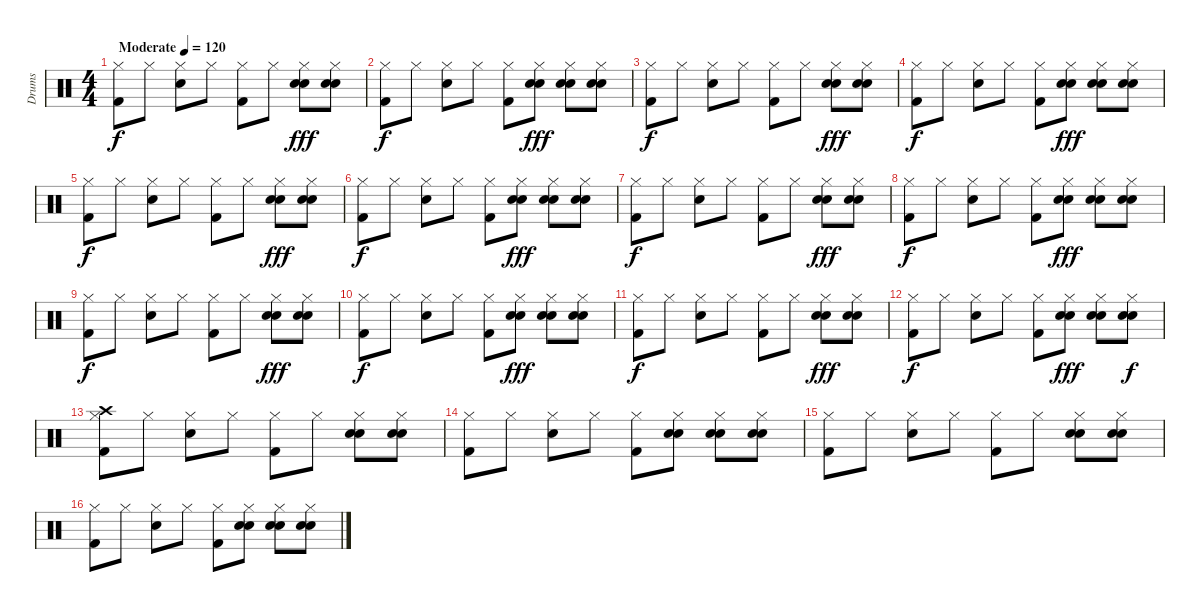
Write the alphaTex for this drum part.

\track ("Drums" "Drums") {instrument percussion}
\staff {score}
\articulation defaults
\ts (4 4)
\tempo (120 "Moderate")
\clef neutral
\ks c
("Hi-Hat (closed)" "Kick (hit) 2").8{dy f} "Hi-Hat (closed)".8 ("Hi-Hat (closed)" "Electric Snare (hit)").8 "Hi-Hat (closed)".8 ("Hi-Hat (closed)" "Kick (hit) 2").8 "Hi-Hat (closed)".8 ("Hi-Hat (closed)" "Hand Clap (hit)" "Electric Snare (hit)").8{dy fff} ("Hi-Hat (closed)" "Hand Clap (hit)" "Electric Snare (hit)").8 |
("Hi-Hat (closed)" "Kick (hit) 2").8{dy f} "Hi-Hat (closed)".8 ("Hi-Hat (closed)" "Electric Snare (hit)").8 "Hi-Hat (closed)".8 ("Hi-Hat (closed)" "Kick (hit) 2").8 ("Hi-Hat (closed)" "Hand Clap (hit)" "Electric Snare (hit)").8{dy fff} ("Hi-Hat (closed)" "Hand Clap (hit)" "Electric Snare (hit)").8 ("Hi-Hat (closed)" "Hand Clap (hit)" "Electric Snare (hit)").8 |
("Hi-Hat (closed)" "Kick (hit) 2").8{dy f} "Hi-Hat (closed)".8 ("Hi-Hat (closed)" "Electric Snare (hit)").8 "Hi-Hat (closed)".8 ("Hi-Hat (closed)" "Kick (hit) 2").8 "Hi-Hat (closed)".8 ("Hi-Hat (closed)" "Hand Clap (hit)" "Electric Snare (hit)").8{dy fff} ("Hi-Hat (closed)" "Hand Clap (hit)" "Electric Snare (hit)").8 |
("Hi-Hat (closed)" "Kick (hit) 2").8{dy f} "Hi-Hat (closed)".8 ("Hi-Hat (closed)" "Electric Snare (hit)").8 "Hi-Hat (closed)".8 ("Hi-Hat (closed)" "Kick (hit) 2").8 ("Hi-Hat (closed)" "Hand Clap (hit)" "Electric Snare (hit)").8{dy fff} ("Hi-Hat (closed)" "Hand Clap (hit)" "Electric Snare (hit)").8 ("Hi-Hat (closed)" "Hand Clap (hit)" "Electric Snare (hit)").8 |
("Hi-Hat (closed)" "Kick (hit) 2").8{dy f} "Hi-Hat (closed)".8 ("Hi-Hat (closed)" "Electric Snare (hit)").8 "Hi-Hat (closed)".8 ("Hi-Hat (closed)" "Kick (hit) 2").8 "Hi-Hat (closed)".8 ("Hi-Hat (closed)" "Hand Clap (hit)" "Electric Snare (hit)").8{dy fff} ("Hi-Hat (closed)" "Hand Clap (hit)" "Electric Snare (hit)").8 |
("Hi-Hat (closed)" "Kick (hit) 2").8{dy f} "Hi-Hat (closed)".8 ("Hi-Hat (closed)" "Electric Snare (hit)").8 "Hi-Hat (closed)".8 ("Hi-Hat (closed)" "Kick (hit) 2").8 ("Hi-Hat (closed)" "Hand Clap (hit)" "Electric Snare (hit)").8{dy fff} ("Hi-Hat (closed)" "Hand Clap (hit)" "Electric Snare (hit)").8 ("Hi-Hat (closed)" "Hand Clap (hit)" "Electric Snare (hit)").8 |
("Hi-Hat (closed)" "Kick (hit) 2").8{dy f} "Hi-Hat (closed)".8 ("Hi-Hat (closed)" "Electric Snare (hit)").8 "Hi-Hat (closed)".8 ("Hi-Hat (closed)" "Kick (hit) 2").8 "Hi-Hat (closed)".8 ("Hi-Hat (closed)" "Hand Clap (hit)" "Electric Snare (hit)").8{dy fff} ("Hi-Hat (closed)" "Hand Clap (hit)" "Electric Snare (hit)").8 |
("Hi-Hat (closed)" "Kick (hit) 2").8{dy f} "Hi-Hat (closed)".8 ("Hi-Hat (closed)" "Electric Snare (hit)").8 "Hi-Hat (closed)".8 ("Hi-Hat (closed)" "Kick (hit) 2").8 ("Hi-Hat (closed)" "Hand Clap (hit)" "Electric Snare (hit)").8{dy fff} ("Hi-Hat (closed)" "Hand Clap (hit)" "Electric Snare (hit)").8 ("Hi-Hat (closed)" "Hand Clap (hit)" "Electric Snare (hit)").8 |
("Hi-Hat (closed)" "Kick (hit) 2").8{dy f} "Hi-Hat (closed)".8 ("Hi-Hat (closed)" "Electric Snare (hit)").8 "Hi-Hat (closed)".8 ("Hi-Hat (closed)" "Kick (hit) 2").8 "Hi-Hat (closed)".8 ("Hi-Hat (closed)" "Hand Clap (hit)" "Electric Snare (hit)").8{dy fff} ("Hi-Hat (closed)" "Hand Clap (hit)" "Electric Snare (hit)").8 |
("Hi-Hat (closed)" "Kick (hit) 2").8{dy f} "Hi-Hat (closed)".8 ("Hi-Hat (closed)" "Electric Snare (hit)").8 "Hi-Hat (closed)".8 ("Hi-Hat (closed)" "Kick (hit) 2").8 ("Hi-Hat (closed)" "Hand Clap (hit)" "Electric Snare (hit)").8{dy fff} ("Hi-Hat (closed)" "Hand Clap (hit)" "Electric Snare (hit)").8 ("Hi-Hat (closed)" "Hand Clap (hit)" "Electric Snare (hit)").8 |
("Hi-Hat (closed)" "Kick (hit) 2").8{dy f} "Hi-Hat (closed)".8 ("Hi-Hat (closed)" "Electric Snare (hit)").8 "Hi-Hat (closed)".8 ("Hi-Hat (closed)" "Kick (hit) 2").8 "Hi-Hat (closed)".8 ("Hi-Hat (closed)" "Hand Clap (hit)" "Electric Snare (hit)").8{dy fff} ("Hi-Hat (closed)" "Hand Clap (hit)" "Electric Snare (hit)").8 |
("Hi-Hat (closed)" "Kick (hit) 2").8{dy f} "Hi-Hat (closed)".8 ("Hi-Hat (closed)" "Electric Snare (hit)").8 "Hi-Hat (closed)".8 ("Hi-Hat (closed)" "Kick (hit) 2").8 ("Hi-Hat (closed)" "Hand Clap (hit)" "Electric Snare (hit)").8{dy fff} ("Hi-Hat (closed)" "Hand Clap (hit)" "Electric Snare (hit)").8 ("Hi-Hat (closed)" "Hand Clap (hit)" "Electric Snare (hit)").8{dy f} |
("Crash high (hit)" "Hi-Hat (closed)" "Kick (hit) 2").8 "Hi-Hat (closed)".8 ("Hi-Hat (closed)" "Electric Snare (hit)").8 "Hi-Hat (closed)".8 ("Hi-Hat (closed)" "Kick (hit) 2").8 "Hi-Hat (closed)".8 ("Hi-Hat (closed)" "Hand Clap (hit)" "Electric Snare (hit)").8 ("Hi-Hat (closed)" "Hand Clap (hit)" "Electric Snare (hit)").8 |
("Hi-Hat (closed)" "Kick (hit) 2").8 "Hi-Hat (closed)".8 ("Hi-Hat (closed)" "Electric Snare (hit)").8 "Hi-Hat (closed)".8 ("Hi-Hat (closed)" "Kick (hit) 2").8 ("Hi-Hat (closed)" "Hand Clap (hit)" "Electric Snare (hit)").8 ("Hi-Hat (closed)" "Hand Clap (hit)" "Electric Snare (hit)").8 ("Hi-Hat (closed)" "Hand Clap (hit)" "Electric Snare (hit)").8 |
("Hi-Hat (closed)" "Kick (hit) 2").8 "Hi-Hat (closed)".8 ("Hi-Hat (closed)" "Electric Snare (hit)").8 "Hi-Hat (closed)".8 ("Hi-Hat (closed)" "Kick (hit) 2").8 "Hi-Hat (closed)".8 ("Hi-Hat (closed)" "Hand Clap (hit)" "Electric Snare (hit)").8 ("Hi-Hat (closed)" "Hand Clap (hit)" "Electric Snare (hit)").8 |
("Hi-Hat (closed)" "Kick (hit) 2").8 "Hi-Hat (closed)".8 ("Hi-Hat (closed)" "Electric Snare (hit)").8 "Hi-Hat (closed)".8 ("Hi-Hat (closed)" "Kick (hit) 2").8 ("Hi-Hat (closed)" "Hand Clap (hit)" "Electric Snare (hit)").8 ("Hi-Hat (closed)" "Hand Clap (hit)" "Electric Snare (hit)").8 ("Hi-Hat (closed)" "Hand Clap (hit)" "Electric Snare (hit)").8
